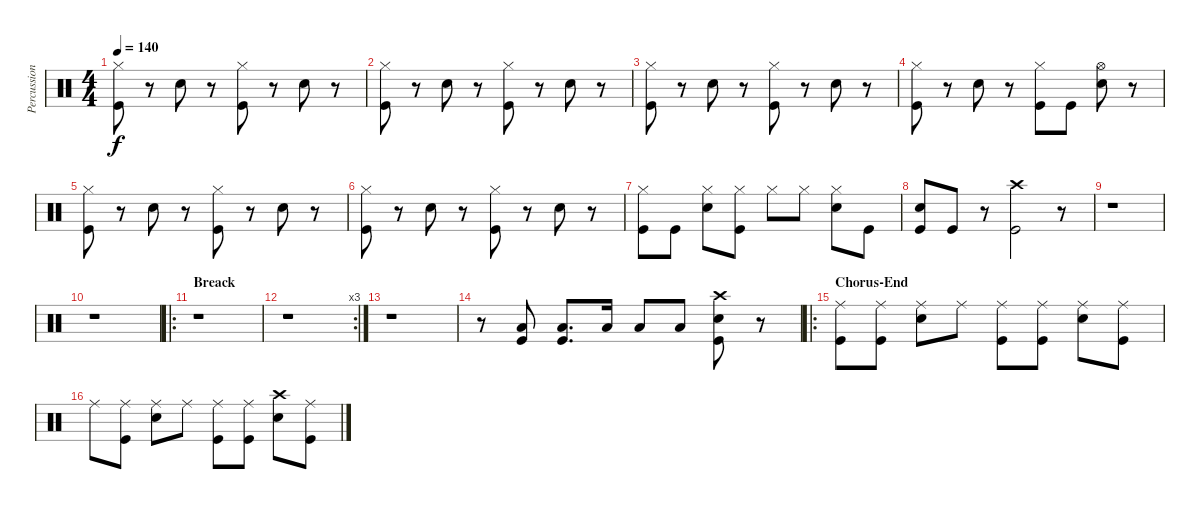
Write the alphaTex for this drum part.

\track ("Percussions" "Percussion") {instrument percussion}
\staff {score}
\articulation defaults
\ts (4 4)
\tempo 140
\clef neutral
\ks c
("Hi-Hat (closed)" "Kick (hit)").8{dy f} r.8 "Snare (hit) 2".8 r.8 ("Hi-Hat (closed)" "Kick (hit)").8 r.8 "Snare (hit) 2".8 r.8 |
("Hi-Hat (closed)" "Kick (hit)").8 r.8 "Snare (hit) 2".8 r.8 ("Hi-Hat (closed)" "Kick (hit)").8 r.8 "Snare (hit) 2".8 r.8 |
("Hi-Hat (closed)" "Kick (hit)").8 r.8 "Snare (hit) 2".8 r.8 ("Hi-Hat (closed)" "Kick (hit)").8 r.8 "Snare (hit) 2".8 r.8 |
("Hi-Hat (closed)" "Kick (hit)").8 r.8 "Snare (hit) 2".8 r.8 ("Hi-Hat (closed)" "Kick (hit)").8 "Kick (hit)".8 ("Hi-Hat (open)" "Snare (hit) 2").8 r.8 |
("Hi-Hat (closed)" "Kick (hit)").8 r.8 "Snare (hit) 2".8 r.8 ("Hi-Hat (closed)" "Kick (hit)").8 r.8 "Snare (hit) 2".8 r.8 |
("Hi-Hat (closed)" "Kick (hit)").8 r.8 "Snare (hit) 2".8 r.8 ("Hi-Hat (closed)" "Kick (hit)").8 r.8 "Snare (hit) 2".8 r.8 |
("Hi-Hat (closed)" "Kick (hit)").8 "Kick (hit)".8 ("Hi-Hat (closed)" "Electric Snare (hit)").8 ("Hi-Hat (closed)" "Kick (hit)").8 "Hi-Hat (closed)".8 "Hi-Hat (closed)".8 ("Hi-Hat (closed)" "Electric Snare (hit)").8 "Kick (hit)".8 |
("Electric Snare (hit)" "Kick (hit)").8 "Kick (hit)".8 r.8 ("Crash high (hit)" "Kick (hit)").2 r.8 |
r.1 |
r.1 |
\ro
\section ("" "Breack")
r.1 |
\rc 3
r.1 |
r.1 |
r.8 ("Low Floor Tom (hit)" "Kick (hit)").8 ("Low Floor Tom (hit)" "Kick (hit)").8{d} "Low Floor Tom (hit)".16 "Low Floor Tom (hit)".8 "Low Floor Tom (hit)".8 ("Crash high (hit)" "Electric Snare (hit)" "Kick (hit)").8 r.8 |
\ro
\section ("" "Chorus-End")
("Ride (middle)" "Kick (hit)").8 ("Ride (middle)" "Kick (hit)").8 ("Ride (middle)" "Electric Snare (hit)").8 "Ride (middle)".8 ("Ride (middle)" "Kick (hit)").8 ("Ride (middle)" "Kick (hit)").8 ("Ride (middle)" "Electric Snare (hit)").8 ("Ride (middle)" "Kick (hit)").8 |
"Ride (middle)".8 ("Ride (middle)" "Kick (hit)").8 ("Ride (middle)" "Electric Snare (hit)").8 "Ride (middle)".8 ("Ride (middle)" "Kick (hit)").8 ("Ride (middle)" "Kick (hit)").8 ("Crash high (hit)" "Electric Snare (hit)").8 ("Ride (middle)" "Kick (hit)").8
